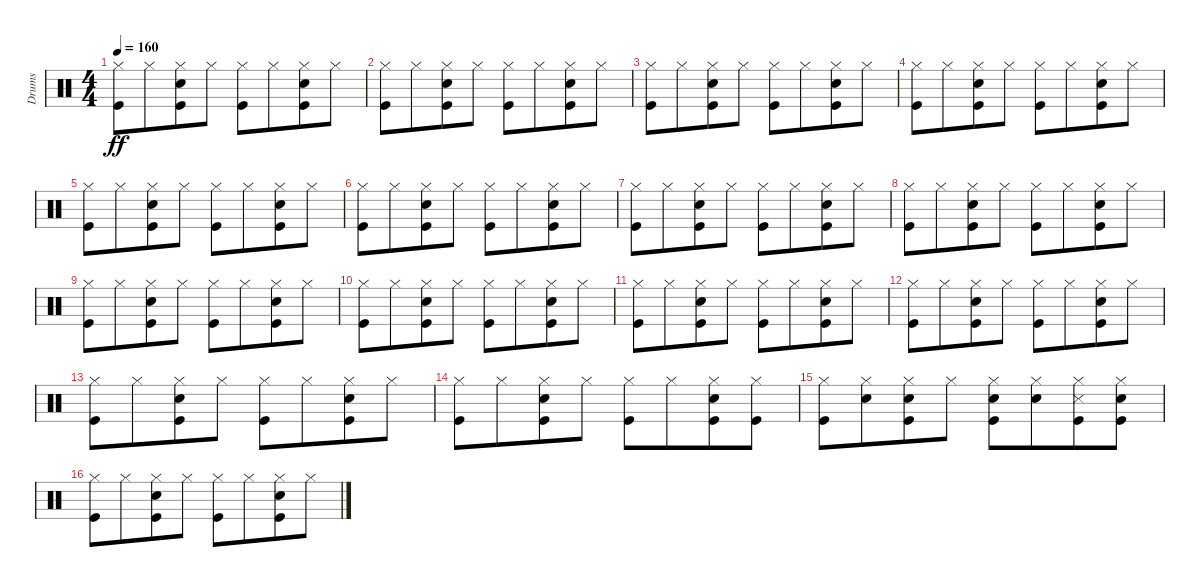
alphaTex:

\track ("Drums" "Drums") {instrument percussion}
\staff {score}
\articulation defaults
\ts (4 4)
\tempo 160
\clef neutral
\ks c
("Hi-Hat (closed)" "Kick (hit)").8{dy ff} "Hi-Hat (closed)".8{beam merge} ("Hi-Hat (closed)" "Snare (hit) 2" "Kick (hit)").8 "Hi-Hat (closed)".8 ("Hi-Hat (closed)" "Kick (hit)").8 "Hi-Hat (closed)".8{beam merge} ("Hi-Hat (closed)" "Snare (hit) 2" "Kick (hit)").8 "Hi-Hat (closed)".8 |
("Hi-Hat (closed)" "Kick (hit)").8 "Hi-Hat (closed)".8{beam merge} ("Hi-Hat (closed)" "Snare (hit) 2" "Kick (hit)").8 "Hi-Hat (closed)".8 ("Hi-Hat (closed)" "Kick (hit)").8 "Hi-Hat (closed)".8{beam merge} ("Hi-Hat (closed)" "Snare (hit) 2" "Kick (hit)").8 "Hi-Hat (closed)".8 |
("Hi-Hat (closed)" "Kick (hit)").8 "Hi-Hat (closed)".8{beam merge} ("Hi-Hat (closed)" "Snare (hit) 2" "Kick (hit)").8 "Hi-Hat (closed)".8 ("Hi-Hat (closed)" "Kick (hit)").8 "Hi-Hat (closed)".8{beam merge} ("Hi-Hat (closed)" "Snare (hit) 2" "Kick (hit)").8 "Hi-Hat (closed)".8 |
("Hi-Hat (closed)" "Kick (hit)").8 "Hi-Hat (closed)".8{beam merge} ("Hi-Hat (closed)" "Snare (hit) 2" "Kick (hit)").8 "Hi-Hat (closed)".8 ("Hi-Hat (closed)" "Kick (hit)").8 "Hi-Hat (closed)".8{beam merge} ("Hi-Hat (closed)" "Snare (hit) 2" "Kick (hit)").8 "Hi-Hat (closed)".8 |
("Hi-Hat (closed)" "Kick (hit)").8 "Hi-Hat (closed)".8{beam merge} ("Hi-Hat (closed)" "Snare (hit) 2" "Kick (hit)").8 "Hi-Hat (closed)".8 ("Hi-Hat (closed)" "Kick (hit)").8 "Hi-Hat (closed)".8{beam merge} ("Hi-Hat (closed)" "Snare (hit) 2" "Kick (hit)").8 "Hi-Hat (closed)".8 |
("Hi-Hat (closed)" "Kick (hit)").8 "Hi-Hat (closed)".8{beam merge} ("Hi-Hat (closed)" "Snare (hit) 2" "Kick (hit)").8 "Hi-Hat (closed)".8 ("Hi-Hat (closed)" "Kick (hit)").8 "Hi-Hat (closed)".8{beam merge} ("Hi-Hat (closed)" "Snare (hit) 2" "Kick (hit)").8 "Hi-Hat (closed)".8 |
("Hi-Hat (closed)" "Kick (hit)").8 "Hi-Hat (closed)".8{beam merge} ("Hi-Hat (closed)" "Snare (hit) 2" "Kick (hit)").8 "Hi-Hat (closed)".8 ("Hi-Hat (closed)" "Kick (hit)").8 "Hi-Hat (closed)".8{beam merge} ("Hi-Hat (closed)" "Snare (hit) 2" "Kick (hit)").8 "Hi-Hat (closed)".8 |
("Hi-Hat (closed)" "Kick (hit)").8 "Hi-Hat (closed)".8{beam merge} ("Hi-Hat (closed)" "Snare (hit) 2" "Kick (hit)").8 "Hi-Hat (closed)".8 ("Hi-Hat (closed)" "Kick (hit)").8 "Hi-Hat (closed)".8{beam merge} ("Hi-Hat (closed)" "Snare (hit) 2" "Kick (hit)").8 "Hi-Hat (closed)".8 |
("Hi-Hat (closed)" "Kick (hit)").8 "Hi-Hat (closed)".8{beam merge} ("Hi-Hat (closed)" "Snare (hit) 2" "Kick (hit)").8 "Hi-Hat (closed)".8 ("Hi-Hat (closed)" "Kick (hit)").8 "Hi-Hat (closed)".8{beam merge} ("Hi-Hat (closed)" "Snare (hit) 2" "Kick (hit)").8 "Hi-Hat (closed)".8 |
("Hi-Hat (closed)" "Kick (hit)").8 "Hi-Hat (closed)".8{beam merge} ("Hi-Hat (closed)" "Snare (hit) 2" "Kick (hit)").8 "Hi-Hat (closed)".8 ("Hi-Hat (closed)" "Kick (hit)").8 "Hi-Hat (closed)".8{beam merge} ("Hi-Hat (closed)" "Snare (hit) 2" "Kick (hit)").8 "Hi-Hat (closed)".8 |
("Hi-Hat (closed)" "Kick (hit)").8 "Hi-Hat (closed)".8{beam merge} ("Hi-Hat (closed)" "Snare (hit) 2" "Kick (hit)").8 "Hi-Hat (closed)".8 ("Hi-Hat (closed)" "Kick (hit)").8 "Hi-Hat (closed)".8{beam merge} ("Hi-Hat (closed)" "Snare (hit) 2" "Kick (hit)").8 "Hi-Hat (closed)".8 |
("Hi-Hat (closed)" "Kick (hit)").8 "Hi-Hat (closed)".8{beam merge} ("Hi-Hat (closed)" "Snare (hit) 2" "Kick (hit)").8 "Hi-Hat (closed)".8 ("Hi-Hat (closed)" "Kick (hit)").8 "Hi-Hat (closed)".8{beam merge} ("Hi-Hat (closed)" "Snare (hit) 2" "Kick (hit)").8 "Hi-Hat (closed)".8 |
("Hi-Hat (closed)" "Kick (hit)").8 "Hi-Hat (closed)".8{beam merge} ("Hi-Hat (closed)" "Snare (hit) 2" "Kick (hit)").8 "Hi-Hat (closed)".8 ("Hi-Hat (closed)" "Kick (hit)").8 "Hi-Hat (closed)".8{beam merge} ("Hi-Hat (closed)" "Snare (hit) 2" "Kick (hit)").8 "Hi-Hat (closed)".8 |
("Hi-Hat (closed)" "Kick (hit)").8 "Hi-Hat (closed)".8{beam merge} ("Hi-Hat (closed)" "Snare (hit) 2" "Kick (hit)").8 "Hi-Hat (closed)".8 ("Hi-Hat (closed)" "Kick (hit)").8 "Hi-Hat (closed)".8{beam merge} ("Hi-Hat (closed)" "Snare (hit) 2" "Kick (hit)").8 ("Hi-Hat (closed)" "Kick (hit)").8 |
("Hi-Hat (closed)" "Kick (hit)").8 ("Hi-Hat (closed)" "Snare (hit) 2").8{beam merge} ("Hi-Hat (closed)" "Snare (hit) 2" "Kick (hit)").8 "Hi-Hat (closed)".8 ("Hi-Hat (closed)" "Snare (hit) 2" "Kick (hit)").8 ("Hi-Hat (closed)" "Snare (hit) 2").8{beam merge} ("Hi-Hat (closed)" "Snare (side stick) 3" "Kick (hit)").8 ("Hi-Hat (closed)" "Snare (hit) 2" "Kick (hit)").8 |
("Hi-Hat (closed)" "Kick (hit)").8 "Hi-Hat (closed)".8{beam merge} ("Hi-Hat (closed)" "Snare (hit) 2" "Kick (hit)").8 "Hi-Hat (closed)".8 ("Hi-Hat (closed)" "Kick (hit)").8 "Hi-Hat (closed)".8{beam merge} ("Hi-Hat (closed)" "Snare (hit) 2" "Kick (hit)").8 "Hi-Hat (closed)".8
